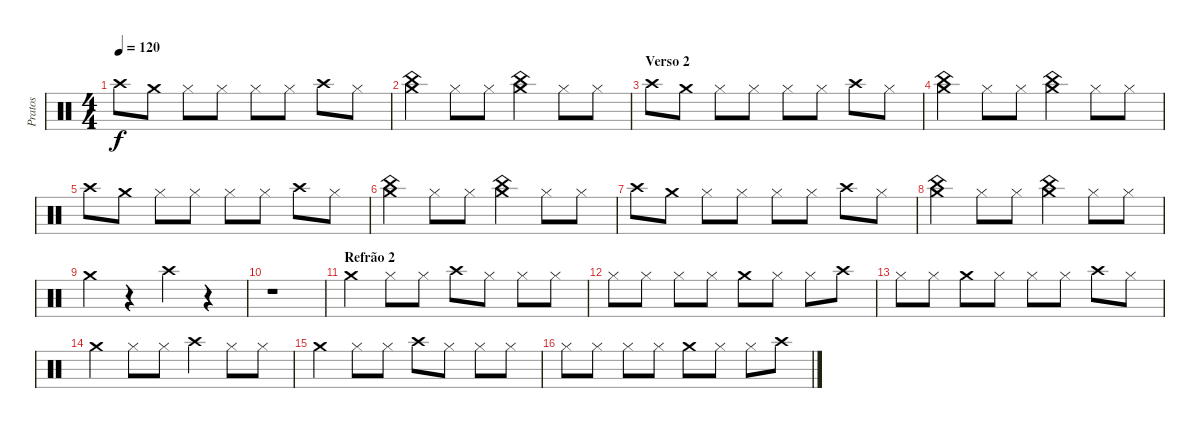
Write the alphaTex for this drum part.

\track ("Pratos" "Pratos") {instrument percussion}
\staff {score}
\articulation defaults
\ts (4 4)
\tempo 120
\clef neutral
\ks c "Crash high (hit)".8{dy f} "Crash medium (hit)".8 "Hi-Hat (closed)".8 "Hi-Hat (closed)".8 "Hi-Hat (closed)".8 "Hi-Hat (closed)".8 "Crash high (hit)".8 "Hi-Hat (closed)".8
|
("China (hit)" "Crash medium (hit)").4 "Hi-Hat (closed)".8 "Hi-Hat (closed)".8 ("China (hit)" "Crash medium (hit)").4 "Hi-Hat (closed)".8 "Hi-Hat (closed)".8 |
\section ("" "Verso 2")
"Crash high (hit)".8 "Crash medium (hit)".8 "Hi-Hat (closed)".8 "Hi-Hat (closed)".8 "Hi-Hat (closed)".8 "Hi-Hat (closed)".8 "Crash high (hit)".8 "Hi-Hat (closed)".8 |
("China (hit)" "Crash medium (hit)").4 "Hi-Hat (closed)".8 "Hi-Hat (closed)".8 ("China (hit)" "Crash medium (hit)").4 "Hi-Hat (closed)".8 "Hi-Hat (closed)".8 |
"Crash high (hit)".8 "Crash medium (hit)".8 "Hi-Hat (closed)".8 "Hi-Hat (closed)".8 "Hi-Hat (closed)".8 "Hi-Hat (closed)".8 "Crash high (hit)".8 "Hi-Hat (closed)".8 |
("China (hit)" "Crash medium (hit)").4 "Hi-Hat (closed)".8 "Hi-Hat (closed)".8 ("China (hit)" "Crash medium (hit)").4 "Hi-Hat (closed)".8 "Hi-Hat (closed)".8 |
"Crash high (hit)".8 "Crash medium (hit)".8 "Hi-Hat (closed)".8 "Hi-Hat (closed)".8 "Hi-Hat (closed)".8 "Hi-Hat (closed)".8 "Crash high (hit)".8 "Hi-Hat (closed)".8 |
("China (hit)" "Crash medium (hit)").4 "Hi-Hat (closed)".8 "Hi-Hat (closed)".8 ("China (hit)" "Crash medium (hit)").4 "Hi-Hat (closed)".8 "Hi-Hat (closed)".8 |
"Crash medium (hit)".4 r.4 "Crash high (hit)".4 r.4 |
r.1 |
\section ("" "Refrão 2")
"Crash medium (hit)".4 "Hi-Hat (closed)".8 "Hi-Hat (closed)".8 "Crash high (hit)".8 "Hi-Hat (closed)".8 "Hi-Hat (closed)".8 "Hi-Hat (closed)".8 |
"Hi-Hat (closed)".8 "Hi-Hat (closed)".8 "Hi-Hat (closed)".8 "Hi-Hat (closed)".8 "Crash medium (hit)".8 "Hi-Hat (closed)".8 "Hi-Hat (closed)".8 "Crash high (hit)".8 |
"Hi-Hat (closed)".8 "Hi-Hat (closed)".8 "Crash medium (hit)".8 "Hi-Hat (closed)".8 "Hi-Hat (closed)".8 "Hi-Hat (closed)".8 "Crash high (hit)".8 "Hi-Hat (closed)".8 |
"Crash medium (hit)".4 "Hi-Hat (closed)".8 "Hi-Hat (closed)".8 "Crash high (hit)".4 "Hi-Hat (closed)".8 "Hi-Hat (closed)".8 |
"Crash medium (hit)".4 "Hi-Hat (closed)".8 "Hi-Hat (closed)".8 "Crash high (hit)".8 "Hi-Hat (closed)".8 "Hi-Hat (closed)".8 "Hi-Hat (closed)".8 |
"Hi-Hat (closed)".8 "Hi-Hat (closed)".8 "Hi-Hat (closed)".8 "Hi-Hat (closed)".8 "Crash medium (hit)".8 "Hi-Hat (closed)".8 "Hi-Hat (closed)".8 "Crash high (hit)".8
